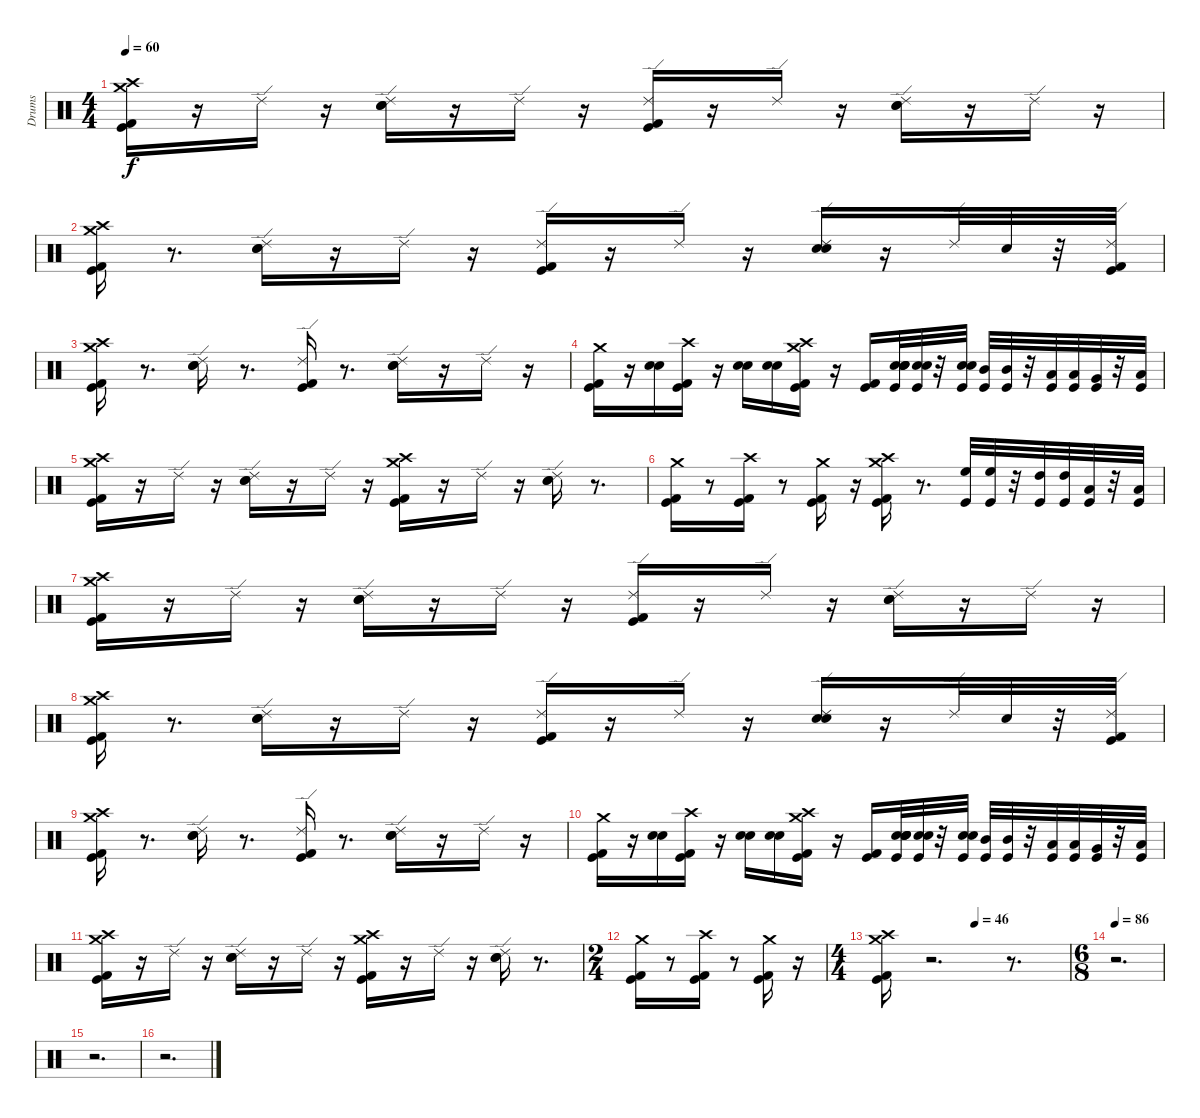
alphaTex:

\track ("Drums" "Drums") {instrument percussion}
\staff {score}
\articulation defaults
\ts (4 4)
\tempo 60
\clef neutral
\ks c
("Crash high (hit)" "Crash medium (hit)" "Kick (hit) 2" "Kick (hit)").16{dy f} r.16 "Ride (edge) 2".16 r.16 ("Ride (edge) 2" "Electric Snare (hit)" "Snare (hit) 2").16 r.16 "Ride (edge) 2".16 r.16 ("Ride (edge) 2" "Kick (hit) 2" "Kick (hit)").16 r.16 "Ride (edge) 2".16 r.16 ("Ride (edge) 2" "Electric Snare (hit)" "Snare (hit) 2").16 r.16 "Ride (edge) 2".16 r.16 |
("Crash high (hit)" "Crash medium (hit)" "Kick (hit) 2" "Kick (hit)").16 r.8{d} ("Ride (edge) 2" "Electric Snare (hit)" "Snare (hit) 2").16 r.16 "Ride (edge) 2".16 r.16 ("Ride (edge) 2" "Kick (hit) 2" "Kick (hit)").16 r.16 "Ride (edge) 2".16 r.16 ("Ride (edge) 2" "Electric Snare (hit)" "Snare (hit) 2").16 r.16 "Ride (edge) 2".32 "Snare (hit)".32 r.32 ("Kick (hit) 2" "Kick (hit)" "Ride (edge) 2").32 |
("Crash high (hit)" "Crash medium (hit)" "Kick (hit) 2" "Kick (hit)").16 r.8{d} ("Ride (edge) 2" "Electric Snare (hit)" "Snare (hit) 2").16 r.8{d} ("Kick (hit) 2" "Kick (hit)" "Ride (edge) 2").16 r.8{d} ("Electric Snare (hit)" "Snare (hit) 2" "Ride (edge) 2").16 r.16 "Ride (edge) 2".16 r.16 |
("Crash medium (hit)" "Kick (hit) 2" "Kick (hit)").16 r.16 ("Electric Snare (hit)" "Snare (hit) 2").16 ("Crash high (hit)" "Kick (hit) 2" "Kick (hit)").16 r.16 ("Electric Snare (hit)" "Snare (hit) 2").16 ("Electric Snare (hit)" "Snare (hit) 2").16 ("Crash high (hit)" "Crash medium (hit)" "Kick (hit) 2" "Kick (hit)").16 r.16 ("Kick (hit) 2" "Kick (hit)").16 ("Kick (hit)" "Electric Snare (hit)" "Snare (hit) 2" "Electric Snare (hit)" "Snare (hit) 2").32 ("Kick (hit)" "Electric Snare (hit)" "Snare (hit) 2").32 r.32 ("Kick (hit)" "Electric Snare (hit)" "Snare (hit) 2").32 ("Kick (hit)" "Mid Tom (hit)").32 ("Kick (hit)" "Mid Tom (hit)").32 r.32 ("Kick (hit)" "Low Tom (hit)").32 ("Kick (hit)" "Low Tom (hit)").32 ("Kick (hit)" "Very Low Tom (hit)").32 r.32 ("Kick (hit)" "Low Floor Tom (hit)").32 |
("Crash high (hit)" "Crash medium (hit)" "Kick (hit) 2" "Kick (hit)").16 r.16 "Ride (edge) 2".16 r.16 ("Ride (edge) 2" "Electric Snare (hit)" "Snare (hit) 2").16 r.16 "Ride (edge) 2".16 r.16 ("Crash high (hit)" "Crash medium (hit)" "Kick (hit) 2" "Kick (hit)").16 r.16 "Ride (edge) 2".16 r.16 ("Ride (edge) 2" "Electric Snare (hit)" "Snare (hit) 2").16 r.8{d} |
("Crash medium (hit)" "Kick (hit)" "Kick (hit) 2").16 r.8 ("Crash high (hit)" "Kick (hit)" "Kick (hit) 2").16 r.8 ("Crash medium (hit)" "Kick (hit)" "Kick (hit) 2").16 r.16 ("Crash high (hit)" "Crash medium (hit)" "Kick (hit) 2" "Kick (hit)").16 r.8{d} ("Kick (hit)" "High Floor Tom (hit)").32 ("Kick (hit)" "High Floor Tom (hit)").32 r.32 ("Kick (hit)" "High Tom (hit)").32 ("Kick (hit)" "High Tom (hit)").32 ("Kick (hit)" "Low Tom (hit)").32 r.32 ("Kick (hit)" "Low Tom (hit)").32 |
("Crash high (hit)" "Crash medium (hit)" "Kick (hit) 2" "Kick (hit)").16 r.16 "Ride (edge) 2".16 r.16 ("Ride (edge) 2" "Electric Snare (hit)" "Snare (hit) 2").16 r.16 "Ride (edge) 2".16 r.16 ("Ride (edge) 2" "Kick (hit) 2" "Kick (hit)").16 r.16 "Ride (edge) 2".16 r.16 ("Ride (edge) 2" "Electric Snare (hit)" "Snare (hit) 2").16 r.16 "Ride (edge) 2".16 r.16 |
("Crash high (hit)" "Crash medium (hit)" "Kick (hit) 2" "Kick (hit)").16 r.8{d} ("Ride (edge) 2" "Electric Snare (hit)" "Snare (hit) 2").16 r.16 "Ride (edge) 2".16 r.16 ("Ride (edge) 2" "Kick (hit) 2" "Kick (hit)").16 r.16 "Ride (edge) 2".16 r.16 ("Ride (edge) 2" "Electric Snare (hit)" "Snare (hit) 2").16 r.16 "Ride (edge) 2".32 "Snare (hit)".32 r.32 ("Kick (hit) 2" "Kick (hit)" "Ride (edge) 2").32 |
("Crash high (hit)" "Crash medium (hit)" "Kick (hit) 2" "Kick (hit)").16 r.8{d} ("Ride (edge) 2" "Electric Snare (hit)" "Snare (hit) 2").16 r.8{d} ("Kick (hit) 2" "Kick (hit)" "Ride (edge) 2").16 r.8{d} ("Electric Snare (hit)" "Snare (hit) 2" "Ride (edge) 2").16 r.16 "Ride (edge) 2".16 r.16 |
("Crash medium (hit)" "Kick (hit) 2" "Kick (hit)").16 r.16 ("Electric Snare (hit)" "Snare (hit) 2").16 ("Crash high (hit)" "Kick (hit) 2" "Kick (hit)").16 r.16 ("Electric Snare (hit)" "Snare (hit) 2").16 ("Electric Snare (hit)" "Snare (hit) 2").16 ("Crash high (hit)" "Crash medium (hit)" "Kick (hit) 2" "Kick (hit)").16 r.16 ("Kick (hit) 2" "Kick (hit)").16 ("Kick (hit)" "Electric Snare (hit)" "Snare (hit) 2" "Electric Snare (hit)" "Snare (hit) 2").32 ("Kick (hit)" "Electric Snare (hit)" "Snare (hit) 2").32 r.32 ("Kick (hit)" "Electric Snare (hit)" "Snare (hit) 2").32 ("Kick (hit)" "Mid Tom (hit)").32 ("Kick (hit)" "Mid Tom (hit)").32 r.32 ("Kick (hit)" "Low Tom (hit)").32 ("Kick (hit)" "Low Tom (hit)").32 ("Kick (hit)" "Very Low Tom (hit)").32 r.32 ("Kick (hit)" "Low Floor Tom (hit)").32 |
("Crash high (hit)" "Crash medium (hit)" "Kick (hit) 2" "Kick (hit)").16 r.16 "Ride (edge) 2".16 r.16 ("Ride (edge) 2" "Electric Snare (hit)" "Snare (hit) 2").16 r.16 "Ride (edge) 2".16 r.16 ("Crash high (hit)" "Crash medium (hit)" "Kick (hit) 2" "Kick (hit)").16 r.16 "Ride (edge) 2".16 r.16 ("Ride (edge) 2" "Electric Snare (hit)" "Snare (hit) 2").16 r.8{d} |
\ts (2 4)
("Crash medium (hit)" "Kick (hit)" "Kick (hit) 2").16 r.8 ("Crash high (hit)" "Kick (hit)" "Kick (hit) 2").16 r.8 ("Crash medium (hit)" "Kick (hit)" "Kick (hit) 2").16 r.16 |
\ts (4 4)
\tempo (46 0.5)
("Crash medium (hit)" "Crash high (hit)" "Kick (hit) 2" "Kick (hit)").16 r.2{d} r.8{d} |
\ts (6 8)
\tempo 86
r.2{d} |
r.2{d} |
r.2{d}
